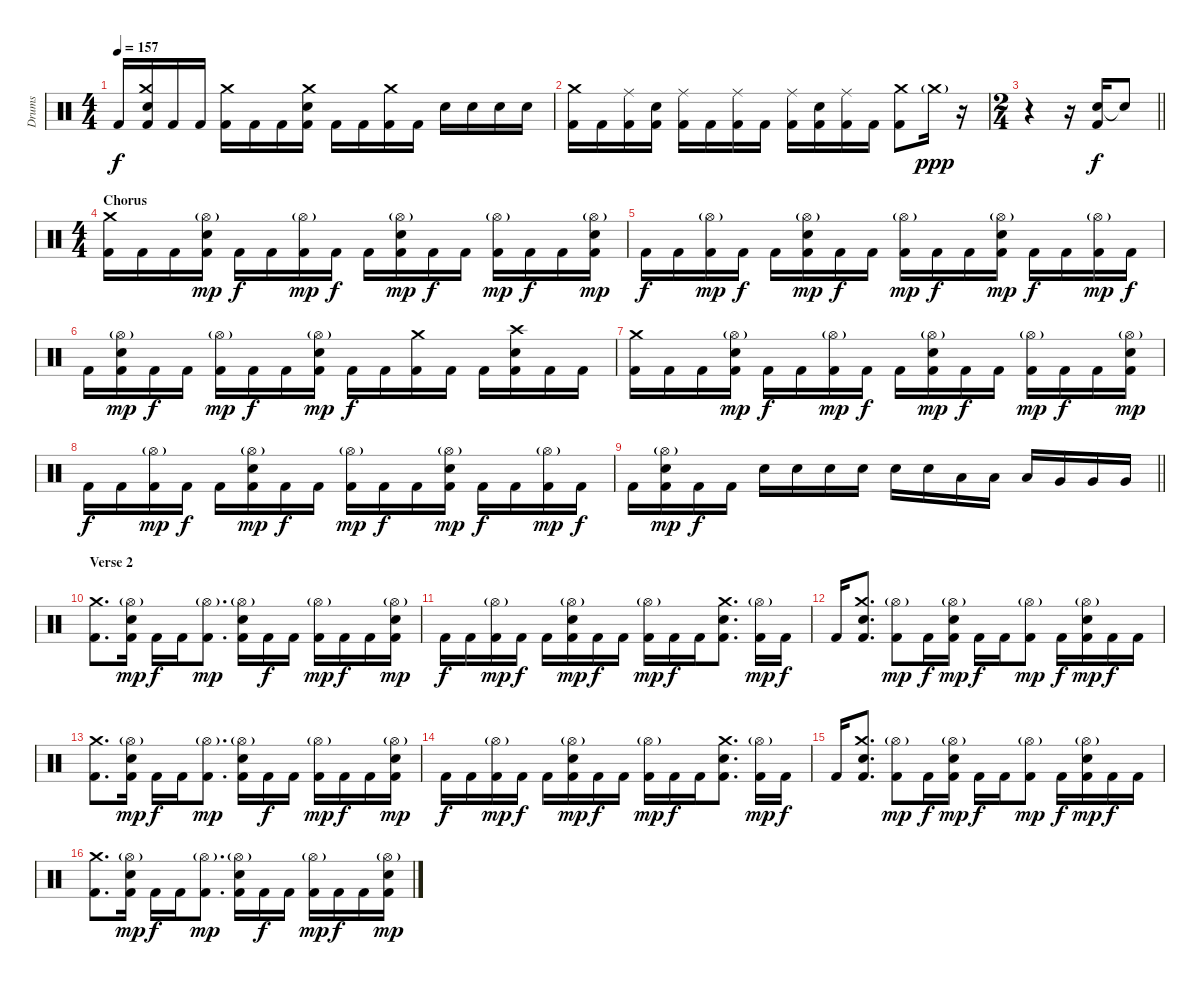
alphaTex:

\track ("Drums" "Drums") {instrument percussion}
\staff {score}
\articulation defaults
\ts (4 4)
\tempo 157
\clef neutral
\ks c "Kick (hit) 2".16{dy f}
("Crash medium (hit)" "Snare (hit) 2" "Kick (hit) 2").16 "Kick (hit) 2".16 "Kick (hit) 2".16 ("Crash medium (hit)" "Kick (hit) 2").16 "Kick (hit) 2".16 "Kick (hit) 2".16 ("Crash medium (hit)" "Snare (hit) 2" "Kick (hit) 2").16 "Kick (hit) 2".16 "Kick (hit) 2".16 ("Crash medium (hit)" "Kick (hit) 2").16 "Kick (hit) 2".16 "Snare (hit) 2".16 "Snare (hit) 2".16 "Snare (hit) 2".16 "Snare (hit) 2".16 |
("Crash medium (hit)" "Kick (hit) 2").16 "Kick (hit) 2".16 ("Ride (middle)" "Kick (hit) 2").16 ("Snare (hit) 2" "Kick (hit) 2").16 ("Ride (middle)" "Kick (hit) 2").16 "Kick (hit) 2".16 ("Ride (middle)" "Kick (hit) 2").16 "Kick (hit) 2".16 ("Ride (middle)" "Kick (hit) 2").16 ("Snare (hit) 2" "Kick (hit) 2").16 ("Ride (middle)" "Kick (hit) 2").16 "Kick (hit) 2".16 ("Crash medium (hit)" "Kick (hit) 2").8 "Crash medium (hit)"{g}.16{dy ppp} r.16 |
\ts (2 4)
\barLineRight lightlight
r.4 r.16 ("Snare (hit) 2" "Kick (hit) 2").16{dy f} "Snare (hit) 2"{t}.8 |
\ts (4 4)
\section ("" "Chorus")
("Crash medium (hit)" "Kick (hit) 2").16 "Kick (hit) 2".16 "Kick (hit) 2".16 ("Snare (hit) 2" "Hi-Hat (open)"{g} "Kick (hit) 2").16{dy mp} "Kick (hit) 2".16{dy f} "Kick (hit) 2".16 ("Hi-Hat (open)"{g} "Kick (hit) 2").16{dy mp} "Kick (hit) 2".16{dy f} "Kick (hit) 2".16 ("Snare (hit) 2" "Hi-Hat (open)"{g} "Kick (hit) 2").16{dy mp} "Kick (hit) 2".16{dy f} "Kick (hit) 2".16 ("Hi-Hat (open)"{g} "Kick (hit) 2").16{dy mp} "Kick (hit) 2".16{dy f} "Kick (hit) 2".16 ("Snare (hit) 2" "Hi-Hat (open)"{g} "Kick (hit) 2").16{dy mp} |
"Kick (hit) 2".16{dy f} "Kick (hit) 2".16 ("Hi-Hat (open)"{g} "Kick (hit) 2").16{dy mp} "Kick (hit) 2".16{dy f} "Kick (hit) 2".16 ("Snare (hit) 2" "Hi-Hat (open)"{g} "Kick (hit) 2").16{dy mp} "Kick (hit) 2".16{dy f} "Kick (hit) 2".16 ("Hi-Hat (open)"{g} "Kick (hit) 2").16{dy mp} "Kick (hit) 2".16{dy f} "Kick (hit) 2".16 ("Snare (hit) 2" "Hi-Hat (open)"{g} "Kick (hit) 2").16{dy mp} "Kick (hit) 2".16{dy f} "Kick (hit) 2".16 ("Hi-Hat (open)"{g} "Kick (hit) 2").16{dy mp} "Kick (hit) 2".16{dy f} |
"Kick (hit) 2".16 ("Snare (hit) 2" "Hi-Hat (open)"{g} "Kick (hit) 2").16{dy mp} "Kick (hit) 2".16{dy f} "Kick (hit) 2".16 ("Hi-Hat (open)"{g} "Kick (hit) 2").16{dy mp} "Kick (hit) 2".16{dy f} "Kick (hit) 2".16 ("Snare (hit) 2" "Hi-Hat (open)"{g} "Kick (hit) 2").16{dy mp} "Kick (hit) 2".16{dy f} "Kick (hit) 2".16 ("Crash medium (hit)" "Kick (hit) 2").16 "Kick (hit) 2".16 "Kick (hit) 2".16 ("Crash high (hit)" "Snare (hit) 2" "Kick (hit) 2").16 "Kick (hit) 2".16 "Kick (hit) 2".16 |
("Crash medium (hit)" "Kick (hit) 2").16 "Kick (hit) 2".16 "Kick (hit) 2".16 ("Snare (hit) 2" "Hi-Hat (open)"{g} "Kick (hit) 2").16{dy mp} "Kick (hit) 2".16{dy f} "Kick (hit) 2".16 ("Hi-Hat (open)"{g} "Kick (hit) 2").16{dy mp} "Kick (hit) 2".16{dy f} "Kick (hit) 2".16 ("Snare (hit) 2" "Hi-Hat (open)"{g} "Kick (hit) 2").16{dy mp} "Kick (hit) 2".16{dy f} "Kick (hit) 2".16 ("Hi-Hat (open)"{g} "Kick (hit) 2").16{dy mp} "Kick (hit) 2".16{dy f} "Kick (hit) 2".16 ("Snare (hit) 2" "Hi-Hat (open)"{g} "Kick (hit) 2").16{dy mp} |
"Kick (hit) 2".16{dy f} "Kick (hit) 2".16 ("Hi-Hat (open)"{g} "Kick (hit) 2").16{dy mp} "Kick (hit) 2".16{dy f} "Kick (hit) 2".16 ("Snare (hit) 2" "Hi-Hat (open)"{g} "Kick (hit) 2").16{dy mp} "Kick (hit) 2".16{dy f} "Kick (hit) 2".16 ("Hi-Hat (open)"{g} "Kick (hit) 2").16{dy mp} "Kick (hit) 2".16{dy f} "Kick (hit) 2".16 ("Snare (hit) 2" "Hi-Hat (open)"{g} "Kick (hit) 2").16{dy mp} "Kick (hit) 2".16{dy f} "Kick (hit) 2".16 ("Hi-Hat (open)"{g} "Kick (hit) 2").16{dy mp} "Kick (hit) 2".16{dy f} |
\barLineRight lightlight "Kick (hit) 2".16
("Snare (hit) 2" "Hi-Hat (open)"{g} "Kick (hit) 2").16{dy mp} "Kick (hit) 2".16{dy f} "Kick (hit) 2".16 "Snare (hit) 2".16 "Snare (hit) 2".16 "Snare (hit) 2".16 "Snare (hit) 2".16 "Snare (hit) 2".16 "Snare (hit) 2".16 "Low Tom (hit)".16 "Low Tom (hit)".16 "Low Tom (hit)".16 "Very Low Tom (hit)".16 "Very Low Tom (hit)".16 "Very Low Tom (hit)".16 |
\section ("" "Verse 2")
("Crash medium (hit)" "Kick (hit) 2").8{d} ("Snare (hit) 2" "Hi-Hat (open)"{g} "Kick (hit) 2").16{dy mp} "Kick (hit) 2".16{dy f} "Kick (hit) 2".16 ("Hi-Hat (open)"{g} "Kick (hit) 2").8{d dy mp} ("Snare (hit) 2" "Hi-Hat (open)"{g} "Kick (hit) 2").16 "Kick (hit) 2".16{dy f} "Kick (hit) 2".16 ("Hi-Hat (open)"{g} "Kick (hit) 2").16{dy mp} "Kick (hit) 2".16{dy f} "Kick (hit) 2".16 ("Snare (hit) 2" "Hi-Hat (open)"{g} "Kick (hit) 2").16{dy mp} |
"Kick (hit) 2".16{dy f} "Kick (hit) 2".16 ("Hi-Hat (open)"{g} "Kick (hit) 2").16{dy mp} "Kick (hit) 2".16{dy f} "Kick (hit) 2".16 ("Snare (hit) 2" "Hi-Hat (open)"{g} "Kick (hit) 2").16{dy mp} "Kick (hit) 2".16{dy f} "Kick (hit) 2".16 ("Hi-Hat (open)"{g} "Kick (hit) 2").16{dy mp} "Kick (hit) 2".16{dy f} "Kick (hit) 2".16 ("Crash medium (hit)" "Snare (hit) 2" "Kick (hit) 2").8{d} ("Hi-Hat (open)"{g} "Kick (hit) 2").16{dy mp} "Kick (hit) 2".16{dy f} |
"Kick (hit) 2".16 ("Crash medium (hit)" "Snare (hit) 2" "Kick (hit) 2").8{d} ("Hi-Hat (open)"{g} "Kick (hit) 2").8{dy mp} "Kick (hit) 2".16{dy f} ("Snare (hit) 2" "Hi-Hat (open)"{g} "Kick (hit) 2").16{dy mp} "Kick (hit) 2".16{dy f} "Kick (hit) 2".16 ("Hi-Hat (open)"{g} "Kick (hit) 2").8{dy mp} "Kick (hit) 2".16{dy f} ("Snare (hit) 2" "Hi-Hat (open)"{g} "Kick (hit) 2").16{dy mp} "Kick (hit) 2".16{dy f} "Kick (hit) 2".16 |
("Crash medium (hit)" "Kick (hit) 2").8{d} ("Snare (hit) 2" "Hi-Hat (open)"{g} "Kick (hit) 2").16{dy mp} "Kick (hit) 2".16{dy f} "Kick (hit) 2".16 ("Hi-Hat (open)"{g} "Kick (hit) 2").8{d dy mp} ("Snare (hit) 2" "Hi-Hat (open)"{g} "Kick (hit) 2").16 "Kick (hit) 2".16{dy f} "Kick (hit) 2".16 ("Hi-Hat (open)"{g} "Kick (hit) 2").16{dy mp} "Kick (hit) 2".16{dy f} "Kick (hit) 2".16 ("Snare (hit) 2" "Hi-Hat (open)"{g} "Kick (hit) 2").16{dy mp} |
"Kick (hit) 2".16{dy f} "Kick (hit) 2".16 ("Hi-Hat (open)"{g} "Kick (hit) 2").16{dy mp} "Kick (hit) 2".16{dy f} "Kick (hit) 2".16 ("Snare (hit) 2" "Hi-Hat (open)"{g} "Kick (hit) 2").16{dy mp} "Kick (hit) 2".16{dy f} "Kick (hit) 2".16 ("Hi-Hat (open)"{g} "Kick (hit) 2").16{dy mp} "Kick (hit) 2".16{dy f} "Kick (hit) 2".16 ("Crash medium (hit)" "Snare (hit) 2" "Kick (hit) 2").8{d} ("Hi-Hat (open)"{g} "Kick (hit) 2").16{dy mp} "Kick (hit) 2".16{dy f} |
"Kick (hit) 2".16 ("Crash medium (hit)" "Snare (hit) 2" "Kick (hit) 2").8{d} ("Hi-Hat (open)"{g} "Kick (hit) 2").8{dy mp} "Kick (hit) 2".16{dy f} ("Snare (hit) 2" "Hi-Hat (open)"{g} "Kick (hit) 2").16{dy mp} "Kick (hit) 2".16{dy f} "Kick (hit) 2".16 ("Hi-Hat (open)"{g} "Kick (hit) 2").8{dy mp} "Kick (hit) 2".16{dy f} ("Snare (hit) 2" "Hi-Hat (open)"{g} "Kick (hit) 2").16{dy mp} "Kick (hit) 2".16{dy f} "Kick (hit) 2".16 |
("Crash medium (hit)" "Kick (hit) 2").8{d} ("Snare (hit) 2" "Hi-Hat (open)"{g} "Kick (hit) 2").16{dy mp} "Kick (hit) 2".16{dy f} "Kick (hit) 2".16 ("Hi-Hat (open)"{g} "Kick (hit) 2").8{d dy mp} ("Snare (hit) 2" "Hi-Hat (open)"{g} "Kick (hit) 2").16 "Kick (hit) 2".16{dy f} "Kick (hit) 2".16 ("Hi-Hat (open)"{g} "Kick (hit) 2").16{dy mp} "Kick (hit) 2".16{dy f} "Kick (hit) 2".16 ("Snare (hit) 2" "Hi-Hat (open)"{g} "Kick (hit) 2").16{dy mp}
